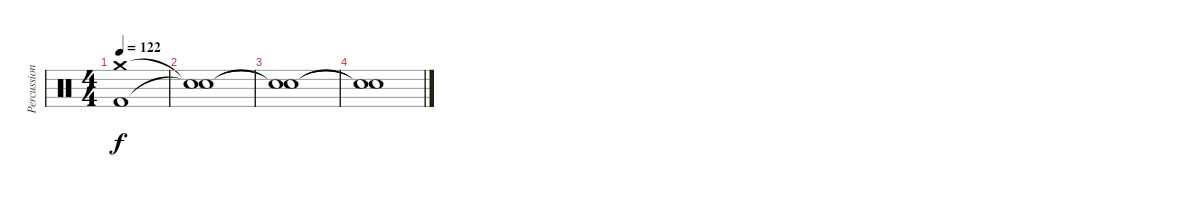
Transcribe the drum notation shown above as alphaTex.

\track ("Percussioni" "Percussion") {instrument percussion}
\staff {score}
\articulation defaults
\ts (4 4)
\tempo 122
\clef neutral
\ks c
("Crash medium (hit)" "Kick (hit) 2").1{dy f} |
("Snare (hit)"{t} "Snare (hit)"{t}).1 |
("Snare (hit)"{t} "Snare (hit)"{t}).1 |
("Snare (hit)"{t} "Snare (hit)"{t}).1
